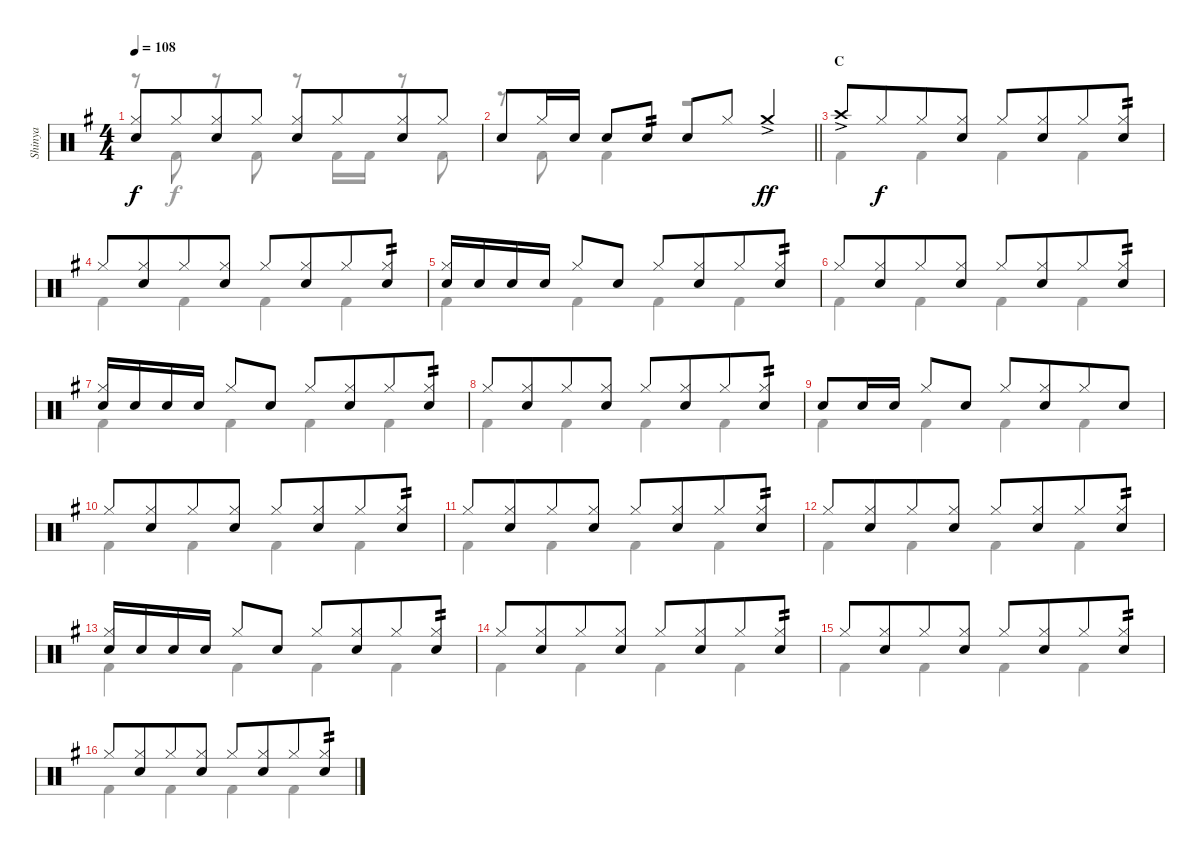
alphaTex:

\track ("Shinya" "Shinya") {instrument percussion}
\staff {score}
\articulation defaults
\voice
\ts (4 4)
\tempo 108
\clef neutral
\ks eminor
("Hi-Hat (closed)" "Snare (hit) 2").8{dy f} "Hi-Hat (closed)".8{beam merge} ("Hi-Hat (closed)" "Snare (hit) 2").8 "Hi-Hat (closed)".8 ("Hi-Hat (closed)" "Snare (hit) 2").8 "Hi-Hat (closed)".8{beam merge} ("Hi-Hat (closed)" "Snare (hit) 2").8 "Hi-Hat (closed)".8 |
\barLineRight lightlight "Snare (hit) 2".8 "Hi-Hat (closed)".16 "Snare (hit) 2".16 "Snare (hit) 2".8 "Snare (hit) 2".8{tp 2} "Snare (hit) 2".8 "Hi-Hat (closed)".8 "Crash medium (hit)"{ac}.4{dy ff}
|
\section ("" "C")
"Crash high (hit)"{ac}.8 "Hi-Hat (closed)".8{dy f beam merge} "Hi-Hat (closed)".8 ("Hi-Hat (closed)" "Snare (hit) 2").8 "Hi-Hat (closed)".8 ("Hi-Hat (closed)" "Snare (hit) 2").8{beam merge} "Hi-Hat (closed)".8 ("Hi-Hat (closed)" "Snare (hit) 2").8{tp 2} |
"Hi-Hat (closed)".8 ("Hi-Hat (closed)" "Snare (hit) 2").8{beam merge} "Hi-Hat (closed)".8 ("Hi-Hat (closed)" "Snare (hit) 2").8 "Hi-Hat (closed)".8 ("Hi-Hat (closed)" "Snare (hit) 2").8{beam merge} "Hi-Hat (closed)".8 ("Hi-Hat (closed)" "Snare (hit) 2").8{tp 2} |
("Hi-Hat (closed)" "Snare (hit) 2").16 "Snare (hit) 2".16 "Snare (hit) 2".16 "Snare (hit) 2".16 "Hi-Hat (closed)".8 "Snare (hit) 2".8 "Hi-Hat (closed)".8 ("Hi-Hat (closed)" "Snare (hit) 2").8{beam merge} "Hi-Hat (closed)".8 ("Hi-Hat (closed)" "Snare (hit) 2").8{tp 2} |
"Hi-Hat (closed)".8 ("Hi-Hat (closed)" "Snare (hit) 2").8{beam merge} "Hi-Hat (closed)".8 ("Hi-Hat (closed)" "Snare (hit) 2").8 "Hi-Hat (closed)".8 ("Hi-Hat (closed)" "Snare (hit) 2").8{beam merge} "Hi-Hat (closed)".8 ("Hi-Hat (closed)" "Snare (hit) 2").8{tp 2} |
("Hi-Hat (closed)" "Snare (hit) 2").16 "Snare (hit) 2".16 "Snare (hit) 2".16 "Snare (hit) 2".16 "Hi-Hat (closed)".8 "Snare (hit) 2".8 "Hi-Hat (closed)".8 ("Hi-Hat (closed)" "Snare (hit) 2").8{beam merge} "Hi-Hat (closed)".8 ("Hi-Hat (closed)" "Snare (hit) 2").8{tp 2} |
"Hi-Hat (closed)".8 ("Hi-Hat (closed)" "Snare (hit) 2").8{beam merge} "Hi-Hat (closed)".8 ("Hi-Hat (closed)" "Snare (hit) 2").8 "Hi-Hat (closed)".8 ("Hi-Hat (closed)" "Snare (hit) 2").8{beam merge} "Hi-Hat (closed)".8 ("Hi-Hat (closed)" "Snare (hit) 2").8{tp 2} |
"Snare (hit) 2".8 "Snare (hit) 2".16 "Snare (hit) 2".16 "Hi-Hat (closed)".8 "Snare (hit) 2".8 "Hi-Hat (closed)".8 ("Hi-Hat (closed)" "Snare (hit) 2").8{beam merge} "Hi-Hat (closed)".8 "Snare (hit) 2".8 |
"Hi-Hat (closed)".8 ("Hi-Hat (closed)" "Snare (hit) 2").8{beam merge} "Hi-Hat (closed)".8 ("Hi-Hat (closed)" "Snare (hit) 2").8 "Hi-Hat (closed)".8 ("Hi-Hat (closed)" "Snare (hit) 2").8{beam merge} "Hi-Hat (closed)".8 ("Hi-Hat (closed)" "Snare (hit) 2").8{tp 2} |
"Hi-Hat (closed)".8 ("Hi-Hat (closed)" "Snare (hit) 2").8{beam merge} "Hi-Hat (closed)".8 ("Hi-Hat (closed)" "Snare (hit) 2").8 "Hi-Hat (closed)".8 ("Hi-Hat (closed)" "Snare (hit) 2").8{beam merge} "Hi-Hat (closed)".8 ("Hi-Hat (closed)" "Snare (hit) 2").8{tp 2} |
"Hi-Hat (closed)".8 ("Hi-Hat (closed)" "Snare (hit) 2").8{beam merge} "Hi-Hat (closed)".8 ("Hi-Hat (closed)" "Snare (hit) 2").8 "Hi-Hat (closed)".8 ("Hi-Hat (closed)" "Snare (hit) 2").8{beam merge} "Hi-Hat (closed)".8 ("Hi-Hat (closed)" "Snare (hit) 2").8{tp 2} |
("Hi-Hat (closed)" "Snare (hit) 2").16 "Snare (hit) 2".16 "Snare (hit) 2".16 "Snare (hit) 2".16 "Hi-Hat (closed)".8 "Snare (hit) 2".8 "Hi-Hat (closed)".8 ("Hi-Hat (closed)" "Snare (hit) 2").8{beam merge} "Hi-Hat (closed)".8 ("Hi-Hat (closed)" "Snare (hit) 2").8{tp 2} |
"Hi-Hat (closed)".8 ("Hi-Hat (closed)" "Snare (hit) 2").8{beam merge} "Hi-Hat (closed)".8 ("Hi-Hat (closed)" "Snare (hit) 2").8 "Hi-Hat (closed)".8 ("Hi-Hat (closed)" "Snare (hit) 2").8{beam merge} "Hi-Hat (closed)".8 ("Hi-Hat (closed)" "Snare (hit) 2").8{tp 2} |
"Hi-Hat (closed)".8 ("Hi-Hat (closed)" "Snare (hit) 2").8{beam merge} "Hi-Hat (closed)".8 ("Hi-Hat (closed)" "Snare (hit) 2").8 "Hi-Hat (closed)".8 ("Hi-Hat (closed)" "Snare (hit) 2").8{beam merge} "Hi-Hat (closed)".8 ("Hi-Hat (closed)" "Snare (hit) 2").8{tp 2} |
"Hi-Hat (closed)".8 ("Hi-Hat (closed)" "Snare (hit) 2").8{beam merge} "Hi-Hat (closed)".8 ("Hi-Hat (closed)" "Snare (hit) 2").8 "Hi-Hat (closed)".8 ("Hi-Hat (closed)" "Snare (hit) 2").8{beam merge} "Hi-Hat (closed)".8 ("Hi-Hat (closed)" "Snare (hit) 2").8{tp 2}
\voice
\clef neutral
\ottava regular
\simile none
\ks eminor
r.8{dy f} "Kick (hit) 2".8 r.8 "Kick (hit) 2".8 r.8 "Kick (hit) 2".16 "Kick (hit) 2".16 r.8 "Kick (hit) 2".8 |
\barLineRight lightlight
r.8 "Kick (hit) 2".8 "Kick (hit) 2".4 r.2 |
"Kick (hit) 2".4 "Kick (hit) 2".4 "Kick (hit) 2".4 "Kick (hit) 2".4 |
"Kick (hit) 2".4 "Kick (hit) 2".4 "Kick (hit) 2".4 "Kick (hit) 2".4 |
"Kick (hit) 2".4 "Kick (hit) 2".4 "Kick (hit) 2".4 "Kick (hit) 2".4 |
"Kick (hit) 2".4 "Kick (hit) 2".4 "Kick (hit) 2".4 "Kick (hit) 2".4 |
"Kick (hit) 2".4 "Kick (hit) 2".4 "Kick (hit) 2".4 "Kick (hit) 2".4 |
"Kick (hit) 2".4 "Kick (hit) 2".4 "Kick (hit) 2".4 "Kick (hit) 2".4 |
"Kick (hit) 2".4 "Kick (hit) 2".4 "Kick (hit) 2".4 "Kick (hit) 2".4 |
"Kick (hit) 2".4 "Kick (hit) 2".4 "Kick (hit) 2".4 "Kick (hit) 2".4 |
"Kick (hit) 2".4 "Kick (hit) 2".4 "Kick (hit) 2".4 "Kick (hit) 2".4 |
"Kick (hit) 2".4 "Kick (hit) 2".4 "Kick (hit) 2".4 "Kick (hit) 2".4 |
"Kick (hit) 2".4 "Kick (hit) 2".4 "Kick (hit) 2".4 "Kick (hit) 2".4 |
"Kick (hit) 2".4 "Kick (hit) 2".4 "Kick (hit) 2".4 "Kick (hit) 2".4 |
"Kick (hit) 2".4 "Kick (hit) 2".4 "Kick (hit) 2".4 "Kick (hit) 2".4 |
"Kick (hit) 2".4 "Kick (hit) 2".4 "Kick (hit) 2".4 "Kick (hit) 2".4
